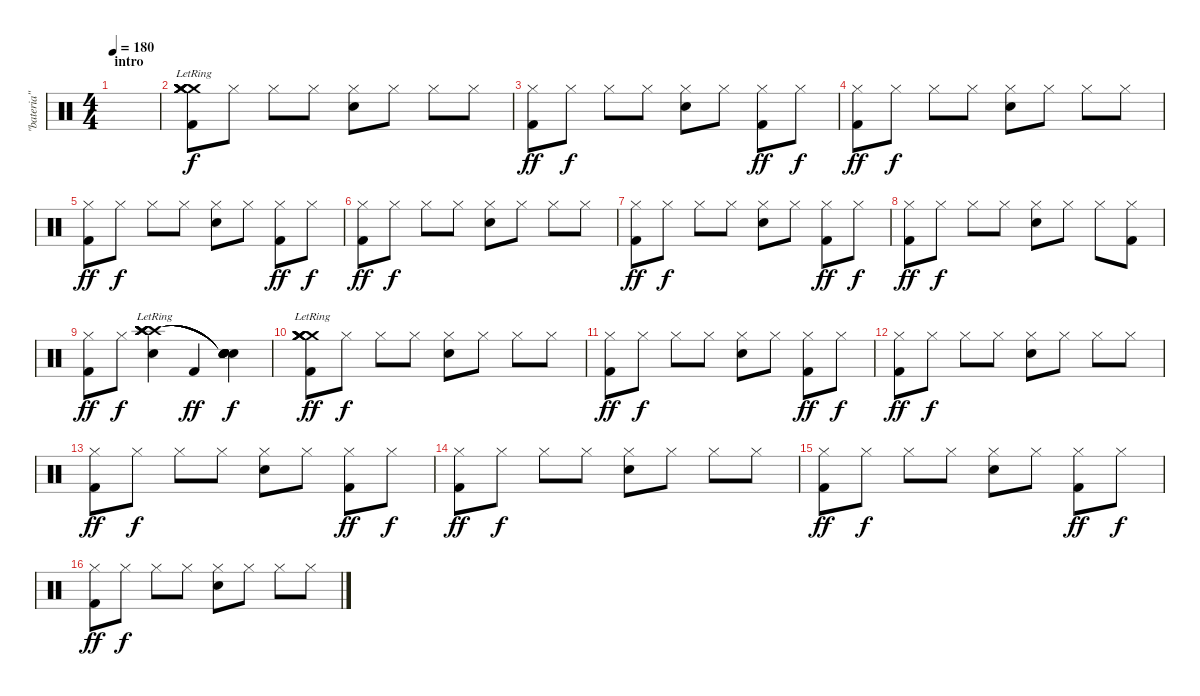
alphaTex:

\track ("\"bateria\"" "\"bateria\"") {instrument percussion}
\staff {score}
\articulation defaults
\ts (4 4)
\section ("" "intro")
\tempo 180
\clef neutral
\ks c
|
("Kick (hit) 2" "Crash medium (hit)"{lr} "Crash medium (hit)"{lr} "Crash medium (hit)"{lr} "Crash medium (hit)"{lr} "Crash medium (hit)"{lr}).8 "Hi-Hat (closed)".8{dy f} "Hi-Hat (closed)".8 "Hi-Hat (closed)".8 ("Electric Snare (hit)" "Hi-Hat (closed)").8 "Hi-Hat (closed)".8 "Hi-Hat (closed)".8 "Hi-Hat (closed)".8 |
("Kick (hit) 2" "Hi-Hat (closed)").8{dy ff} "Hi-Hat (closed)".8{dy f} "Hi-Hat (closed)".8 "Hi-Hat (closed)".8 ("Electric Snare (hit)" "Hi-Hat (closed)").8 "Hi-Hat (closed)".8 ("Kick (hit) 2" "Hi-Hat (closed)").8{dy ff} "Hi-Hat (closed)".8{dy f} |
("Kick (hit) 2" "Hi-Hat (closed)").8{dy ff} "Hi-Hat (closed)".8{dy f} "Hi-Hat (closed)".8 "Hi-Hat (closed)".8 ("Electric Snare (hit)" "Hi-Hat (closed)").8 "Hi-Hat (closed)".8 "Hi-Hat (closed)".8 "Hi-Hat (closed)".8 |
("Kick (hit) 2" "Hi-Hat (closed)").8{dy ff} "Hi-Hat (closed)".8{dy f} "Hi-Hat (closed)".8 "Hi-Hat (closed)".8 ("Electric Snare (hit)" "Hi-Hat (closed)").8 "Hi-Hat (closed)".8 ("Kick (hit) 2" "Hi-Hat (closed)").8{dy ff} "Hi-Hat (closed)".8{dy f} |
("Kick (hit) 2" "Hi-Hat (closed)").8{dy ff} "Hi-Hat (closed)".8{dy f} "Hi-Hat (closed)".8 "Hi-Hat (closed)".8 ("Electric Snare (hit)" "Hi-Hat (closed)").8 "Hi-Hat (closed)".8 "Hi-Hat (closed)".8 "Hi-Hat (closed)".8 |
("Kick (hit) 2" "Hi-Hat (closed)").8{dy ff} "Hi-Hat (closed)".8{dy f} "Hi-Hat (closed)".8 "Hi-Hat (closed)".8 ("Electric Snare (hit)" "Hi-Hat (closed)").8 "Hi-Hat (closed)".8 ("Kick (hit) 2" "Hi-Hat (closed)").8{dy ff} "Hi-Hat (closed)".8{dy f} |
("Kick (hit) 2" "Hi-Hat (closed)").8{dy ff} "Hi-Hat (closed)".8{dy f} "Hi-Hat (closed)".8 "Hi-Hat (closed)".8 ("Electric Snare (hit)" "Hi-Hat (closed)").8 "Hi-Hat (closed)".8 "Hi-Hat (closed)".8 ("Kick (hit) 2" "Hi-Hat (closed)").8 |
("Kick (hit) 2" "Hi-Hat (closed)").8{dy ff} "Hi-Hat (closed)".8{dy f} ("Electric Snare (hit)" "Crash high (hit)"{lr} "Crash high (hit)"{lr} "Crash high (hit)"{lr} "Crash high (hit)"{lr} "Crash high (hit)"{lr}).4 "Kick (hit) 2".4{dy ff} ("Electric Snare (hit)" "Snare (hit)"{t} "Snare (hit)"{t} "Snare (hit)"{t} "Snare (hit)"{t} "Snare (hit)"{t}).4{dy f} |
("Kick (hit) 2" "Crash medium (hit)"{lr} "Crash medium (hit)"{lr} "Crash medium (hit)"{lr} "Crash medium (hit)"{lr} "Crash medium (hit)"{lr}).8{dy ff} "Hi-Hat (closed)".8{dy f} "Hi-Hat (closed)".8 "Hi-Hat (closed)".8 ("Electric Snare (hit)" "Hi-Hat (closed)").8 "Hi-Hat (closed)".8 "Hi-Hat (closed)".8 "Hi-Hat (closed)".8 |
("Kick (hit) 2" "Hi-Hat (closed)").8{dy ff} "Hi-Hat (closed)".8{dy f} "Hi-Hat (closed)".8 "Hi-Hat (closed)".8 ("Electric Snare (hit)" "Hi-Hat (closed)").8 "Hi-Hat (closed)".8 ("Kick (hit) 2" "Hi-Hat (closed)").8{dy ff} "Hi-Hat (closed)".8{dy f} |
("Kick (hit) 2" "Hi-Hat (closed)").8{dy ff} "Hi-Hat (closed)".8{dy f} "Hi-Hat (closed)".8 "Hi-Hat (closed)".8 ("Electric Snare (hit)" "Hi-Hat (closed)").8 "Hi-Hat (closed)".8 "Hi-Hat (closed)".8 "Hi-Hat (closed)".8 |
("Kick (hit) 2" "Hi-Hat (closed)").8{dy ff} "Hi-Hat (closed)".8{dy f} "Hi-Hat (closed)".8 "Hi-Hat (closed)".8 ("Electric Snare (hit)" "Hi-Hat (closed)").8 "Hi-Hat (closed)".8 ("Kick (hit) 2" "Hi-Hat (closed)").8{dy ff} "Hi-Hat (closed)".8{dy f} |
("Kick (hit) 2" "Hi-Hat (closed)").8{dy ff} "Hi-Hat (closed)".8{dy f} "Hi-Hat (closed)".8 "Hi-Hat (closed)".8 ("Electric Snare (hit)" "Hi-Hat (closed)").8 "Hi-Hat (closed)".8 "Hi-Hat (closed)".8 "Hi-Hat (closed)".8 |
("Kick (hit) 2" "Hi-Hat (closed)").8{dy ff} "Hi-Hat (closed)".8{dy f} "Hi-Hat (closed)".8 "Hi-Hat (closed)".8 ("Electric Snare (hit)" "Hi-Hat (closed)").8 "Hi-Hat (closed)".8 ("Kick (hit) 2" "Hi-Hat (closed)").8{dy ff} "Hi-Hat (closed)".8{dy f} |
("Kick (hit) 2" "Hi-Hat (closed)").8{dy ff} "Hi-Hat (closed)".8{dy f} "Hi-Hat (closed)".8 "Hi-Hat (closed)".8 ("Electric Snare (hit)" "Hi-Hat (closed)").8 "Hi-Hat (closed)".8 "Hi-Hat (closed)".8 "Hi-Hat (closed)".8
